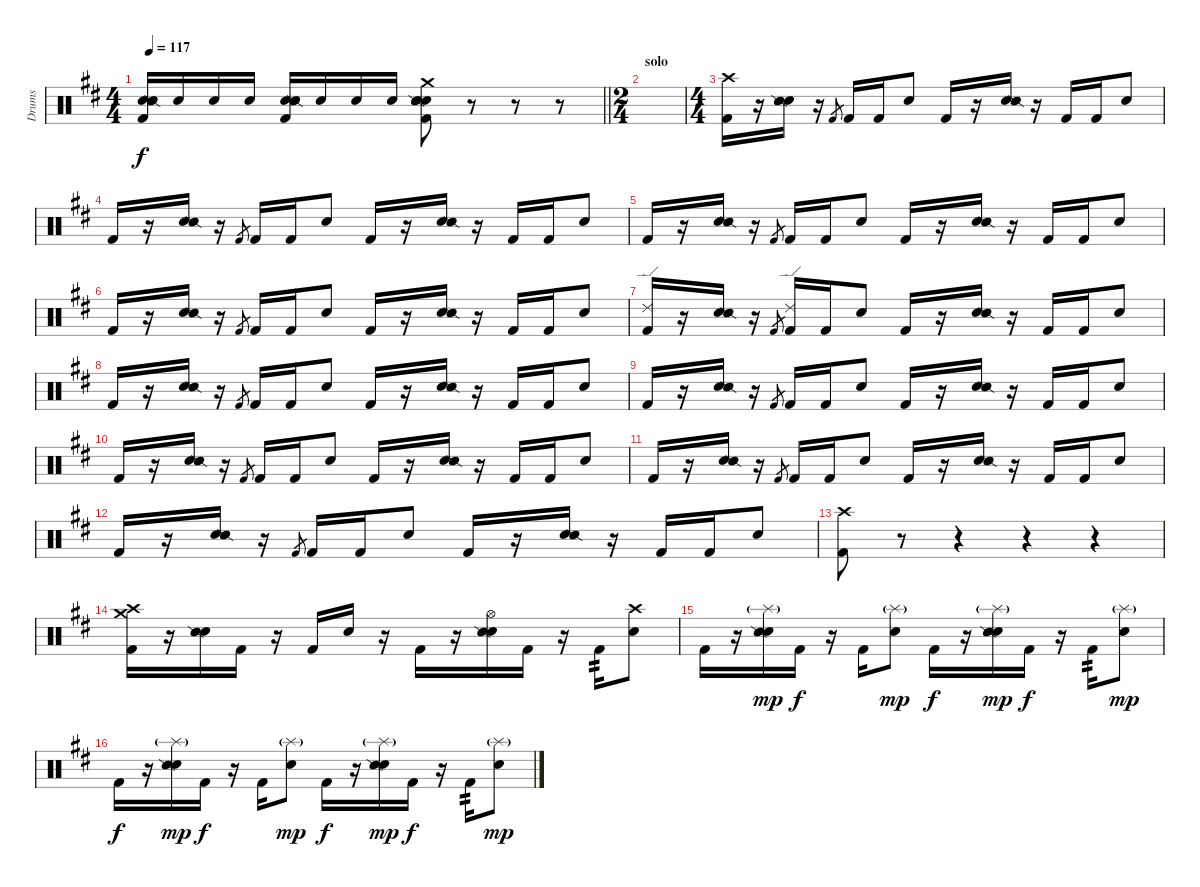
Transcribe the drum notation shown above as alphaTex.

\track ("Drums" "Drums") {instrument percussion}
\staff {score}
\articulation defaults
\ts (4 4)
\tempo 117
\clef neutral
\barLineRight lightlight
\ks d
("Snare (hit) 2" "Electric Snare (hit)" "Snare (side stick) 2" "Kick (hit) 2").16{dy f} "Electric Snare (hit)".16 "Electric Snare (hit)".16 "Electric Snare (hit)".16 ("Snare (hit) 2" "Electric Snare (hit)" "Snare (side stick) 2" "Kick (hit) 2").16 "Electric Snare (hit)".16 "Electric Snare (hit)".16 "Electric Snare (hit)".16 ("Crash medium (hit)" "Snare (hit) 2" "Electric Snare (hit)" "Snare (side stick) 2" "Kick (hit) 2").8 r.8 r.8 r.8 |
\ts (2 4)
\section ("" "solo")
|
\ts (4 4)
("Crash high (hit)" "Kick (hit) 2").16 r.16 ("Snare (hit) 2" "Snare (side stick) 2").16 r.16 "Kick (hit) 2".8{gr} "Kick (hit) 2".16 "Kick (hit) 2".16 "Snare (hit) 2".8 "Kick (hit) 2".16 r.16 ("Snare (hit) 2" "Snare (side stick) 2").16 r.16 "Kick (hit) 2".16 "Kick (hit) 2".16 "Snare (hit) 2".8 |
"Kick (hit) 2".16 r.16 ("Snare (hit) 2" "Snare (side stick) 2").16 r.16 "Kick (hit) 2".8{gr} "Kick (hit) 2".16 "Kick (hit) 2".16 "Snare (hit) 2".8 "Kick (hit) 2".16 r.16 ("Snare (hit) 2" "Snare (side stick) 2").16 r.16 "Kick (hit) 2".16 "Kick (hit) 2".16 "Snare (hit) 2".8 |
"Kick (hit) 2".16 r.16 ("Snare (hit) 2" "Snare (side stick) 2").16 r.16 "Kick (hit) 2".8{gr} "Kick (hit) 2".16 "Kick (hit) 2".16 "Snare (hit) 2".8 "Kick (hit) 2".16 r.16 ("Snare (hit) 2" "Snare (side stick) 2").16 r.16 "Kick (hit) 2".16 "Kick (hit) 2".16 "Snare (hit) 2".8 |
"Kick (hit) 2".16 r.16 ("Snare (hit) 2" "Snare (side stick) 2").16 r.16 "Kick (hit) 2".8{gr} "Kick (hit) 2".16 "Kick (hit) 2".16 "Snare (hit) 2".8 "Kick (hit) 2".16 r.16 ("Snare (hit) 2" "Snare (side stick) 2").16 r.16 "Kick (hit) 2".16 "Kick (hit) 2".16 "Snare (hit) 2".8 |
("Ride (edge) 2" "Kick (hit) 2").16 r.16 ("Snare (hit) 2" "Snare (side stick) 2").16 r.16 "Kick (hit) 2".8{gr} ("Ride (edge) 2" "Kick (hit) 2").16 "Kick (hit) 2".16 "Snare (hit) 2".8 "Kick (hit) 2".16 r.16 ("Snare (hit) 2" "Snare (side stick) 2").16 r.16 "Kick (hit) 2".16 "Kick (hit) 2".16 "Snare (hit) 2".8 |
"Kick (hit) 2".16 r.16 ("Snare (hit) 2" "Snare (side stick) 2").16 r.16 "Kick (hit) 2".8{gr} "Kick (hit) 2".16 "Kick (hit) 2".16 "Snare (hit) 2".8 "Kick (hit) 2".16 r.16 ("Snare (hit) 2" "Snare (side stick) 2").16 r.16 "Kick (hit) 2".16 "Kick (hit) 2".16 "Snare (hit) 2".8 |
"Kick (hit) 2".16 r.16 ("Snare (hit) 2" "Snare (side stick) 2").16 r.16 "Kick (hit) 2".8{gr} "Kick (hit) 2".16 "Kick (hit) 2".16 "Snare (hit) 2".8 "Kick (hit) 2".16 r.16 ("Snare (hit) 2" "Snare (side stick) 2").16 r.16 "Kick (hit) 2".16 "Kick (hit) 2".16 "Snare (hit) 2".8 |
"Kick (hit) 2".16 r.16 ("Snare (hit) 2" "Snare (side stick) 2").16 r.16 "Kick (hit) 2".8{gr} "Kick (hit) 2".16 "Kick (hit) 2".16 "Snare (hit) 2".8 "Kick (hit) 2".16 r.16 ("Snare (hit) 2" "Snare (side stick) 2").16 r.16 "Kick (hit) 2".16 "Kick (hit) 2".16 "Snare (hit) 2".8 |
"Kick (hit) 2".16 r.16 ("Snare (hit) 2" "Snare (side stick) 2").16 r.16 "Kick (hit) 2".8{gr} "Kick (hit) 2".16 "Kick (hit) 2".16 "Snare (hit) 2".8 "Kick (hit) 2".16 r.16 ("Snare (hit) 2" "Snare (side stick) 2").16 r.16 "Kick (hit) 2".16 "Kick (hit) 2".16 "Snare (hit) 2".8 |
"Kick (hit) 2".16 r.16 ("Snare (hit) 2" "Snare (side stick) 2").16 r.16 "Kick (hit) 2".8{gr} "Kick (hit) 2".16 "Kick (hit) 2".16 "Snare (hit) 2".8 "Kick (hit) 2".16 r.16 ("Snare (hit) 2" "Snare (side stick) 2").16 r.16 "Kick (hit) 2".16 "Kick (hit) 2".16 "Snare (hit) 2".8 |
("Crash high (hit)" "Kick (hit) 2").8 r.8 r.4 r.4 r.4 |
("Crash high (hit)" "Crash medium (hit)" "Kick (hit) 2").16 r.16 ("Snare (hit) 2" "Snare (side stick) 2").16 "Kick (hit) 2".16 r.16 "Kick (hit) 2".16 "Snare (hit) 2".16 r.16 "Kick (hit) 2".16 r.16 ("Hi-Hat (open)" "Snare (hit) 2" "Snare (side stick) 2").16 "Kick (hit) 2".16 r.16 "Kick (hit) 2".16{tp 2} ("Crash high (hit)" "Snare (hit) 2").8 |
"Kick (hit) 2".16 r.16 ("Splash (hit)"{g} "Snare (hit) 2" "Snare (side stick) 2").16{dy mp} "Kick (hit) 2".16{dy f} r.16 "Kick (hit) 2".16 ("Splash (hit)"{g} "Snare (hit) 2").8{dy mp} "Kick (hit) 2".16{dy f} r.16 ("Splash (hit)"{g} "Snare (hit) 2" "Snare (side stick) 2").16{dy mp} "Kick (hit) 2".16{dy f} r.16 "Kick (hit) 2".16{tp 2} ("Splash (hit)"{g} "Snare (hit) 2").8{dy mp} |
"Kick (hit) 2".16{dy f} r.16 ("Splash (hit)"{g} "Snare (hit) 2" "Snare (side stick) 2").16{dy mp} "Kick (hit) 2".16{dy f} r.16 "Kick (hit) 2".16 ("Splash (hit)"{g} "Snare (hit) 2").8{dy mp} "Kick (hit) 2".16{dy f} r.16 ("Splash (hit)"{g} "Snare (hit) 2" "Snare (side stick) 2").16{dy mp} "Kick (hit) 2".16{dy f} r.16 "Kick (hit) 2".16{tp 2} ("Splash (hit)"{g} "Snare (hit) 2").8{dy mp}
